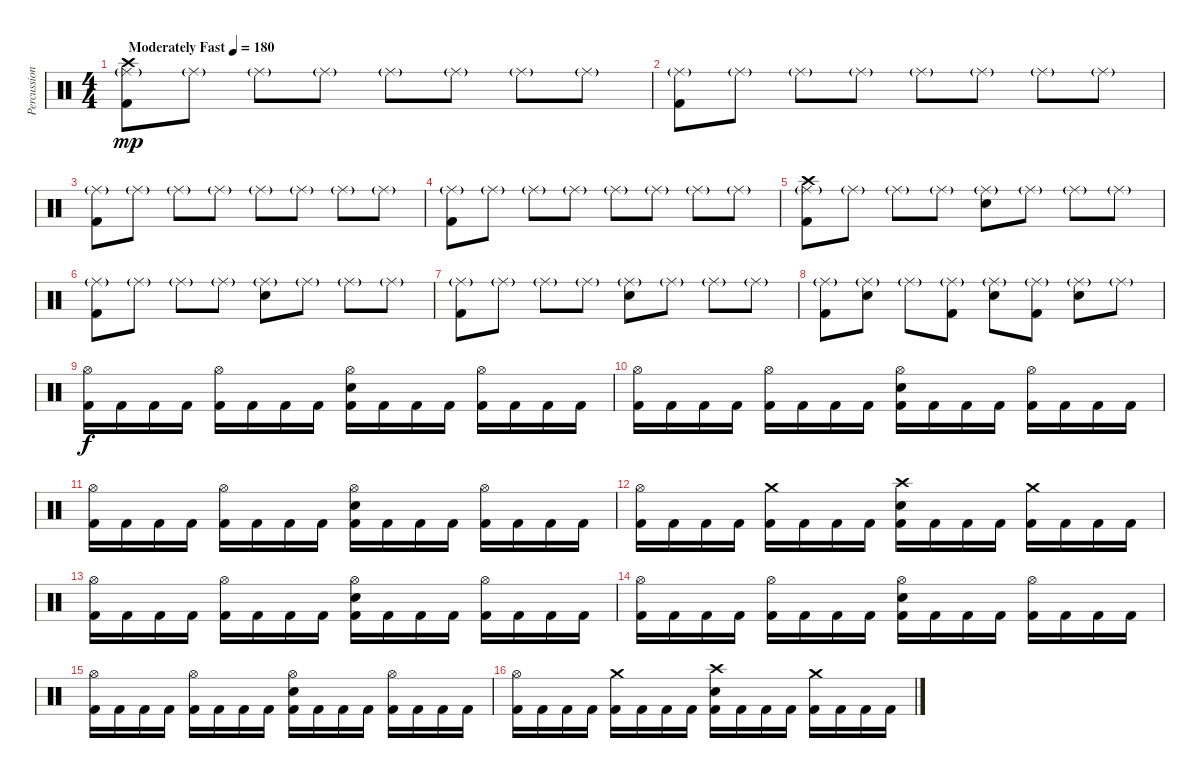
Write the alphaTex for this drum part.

\track ("Percussions" "Percussion") {instrument percussion}
\staff {score}
\articulation defaults
\ts (4 4)
\tempo (180 "Moderately Fast")
\clef neutral
\ks c
("Crash high (hit)" "Ride (middle)"{g} "Kick (hit) 2").8{dy mp} "Ride (middle)"{g}.8 "Ride (middle)"{g}.8 "Ride (middle)"{g}.8 "Ride (middle)"{g}.8 "Ride (middle)"{g}.8 "Ride (middle)"{g}.8 "Ride (middle)"{g}.8 |
("Ride (middle)"{g} "Kick (hit) 2").8 "Ride (middle)"{g}.8 "Ride (middle)"{g}.8 "Ride (middle)"{g}.8 "Ride (middle)"{g}.8 "Ride (middle)"{g}.8 "Ride (middle)"{g}.8 "Ride (middle)"{g}.8 |
("Ride (middle)"{g} "Kick (hit) 2").8 "Ride (middle)"{g}.8 "Ride (middle)"{g}.8 "Ride (middle)"{g}.8 "Ride (middle)"{g}.8 "Ride (middle)"{g}.8 "Ride (middle)"{g}.8 "Ride (middle)"{g}.8 |
("Ride (middle)"{g} "Kick (hit) 2").8 "Ride (middle)"{g}.8 "Ride (middle)"{g}.8 "Ride (middle)"{g}.8 "Ride (middle)"{g}.8 "Ride (middle)"{g}.8 "Ride (middle)"{g}.8 "Ride (middle)"{g}.8 |
("Crash high (hit)" "Ride (middle)"{g} "Kick (hit) 2").8 "Ride (middle)"{g}.8 "Ride (middle)"{g}.8 "Ride (middle)"{g}.8 ("Ride (middle)"{g} "Electric Snare (hit)").8 "Ride (middle)"{g}.8 "Ride (middle)"{g}.8 "Ride (middle)"{g}.8 |
("Ride (middle)"{g} "Kick (hit) 2").8 "Ride (middle)"{g}.8 "Ride (middle)"{g}.8 "Ride (middle)"{g}.8 ("Ride (middle)"{g} "Electric Snare (hit)").8 "Ride (middle)"{g}.8 "Ride (middle)"{g}.8 "Ride (middle)"{g}.8 |
("Ride (middle)"{g} "Kick (hit) 2").8 "Ride (middle)"{g}.8 "Ride (middle)"{g}.8 "Ride (middle)"{g}.8 ("Ride (middle)"{g} "Electric Snare (hit)").8 "Ride (middle)"{g}.8 "Ride (middle)"{g}.8 "Ride (middle)"{g}.8 |
("Ride (middle)"{g} "Kick (hit) 2").8 ("Ride (middle)"{g} "Electric Snare (hit)").8 "Ride (middle)"{g}.8 ("Ride (middle)"{g} "Kick (hit) 2").8 ("Ride (middle)"{g} "Electric Snare (hit)").8 ("Ride (middle)"{g} "Kick (hit) 2").8 ("Ride (middle)"{g} "Electric Snare (hit)").8 "Ride (middle)"{g}.8 |
("Hi-Hat (open)" "Kick (hit) 2").16{dy f} "Kick (hit) 2".16 "Kick (hit) 2".16 "Kick (hit) 2".16 ("Hi-Hat (open)" "Kick (hit) 2").16 "Kick (hit) 2".16 "Kick (hit) 2".16 "Kick (hit) 2".16 ("Hi-Hat (open)" "Electric Snare (hit)" "Kick (hit) 2").16 "Kick (hit) 2".16 "Kick (hit) 2".16 "Kick (hit) 2".16 ("Hi-Hat (open)" "Kick (hit) 2").16 "Kick (hit) 2".16 "Kick (hit) 2".16 "Kick (hit) 2".16 |
("Hi-Hat (open)" "Kick (hit) 2").16 "Kick (hit) 2".16 "Kick (hit) 2".16 "Kick (hit) 2".16 ("Hi-Hat (open)" "Kick (hit) 2").16 "Kick (hit) 2".16 "Kick (hit) 2".16 "Kick (hit) 2".16 ("Hi-Hat (open)" "Electric Snare (hit)" "Kick (hit) 2").16 "Kick (hit) 2".16 "Kick (hit) 2".16 "Kick (hit) 2".16 ("Hi-Hat (open)" "Kick (hit) 2").16 "Kick (hit) 2".16 "Kick (hit) 2".16 "Kick (hit) 2".16 |
("Hi-Hat (open)" "Kick (hit) 2").16 "Kick (hit) 2".16 "Kick (hit) 2".16 "Kick (hit) 2".16 ("Hi-Hat (open)" "Kick (hit) 2").16 "Kick (hit) 2".16 "Kick (hit) 2".16 "Kick (hit) 2".16 ("Hi-Hat (open)" "Electric Snare (hit)" "Kick (hit) 2").16 "Kick (hit) 2".16 "Kick (hit) 2".16 "Kick (hit) 2".16 ("Hi-Hat (open)" "Kick (hit) 2").16 "Kick (hit) 2".16 "Kick (hit) 2".16 "Kick (hit) 2".16 |
("Hi-Hat (open)" "Kick (hit) 2").16 "Kick (hit) 2".16 "Kick (hit) 2".16 "Kick (hit) 2".16 ("Crash medium (hit)" "Kick (hit) 2").16 "Kick (hit) 2".16 "Kick (hit) 2".16 "Kick (hit) 2".16 ("Crash high (hit)" "Electric Snare (hit)" "Kick (hit) 2").16 "Kick (hit) 2".16 "Kick (hit) 2".16 "Kick (hit) 2".16 ("Crash medium (hit)" "Kick (hit) 2").16 "Kick (hit) 2".16 "Kick (hit) 2".16 "Kick (hit) 2".16 |
("Hi-Hat (open)" "Kick (hit) 2").16 "Kick (hit) 2".16 "Kick (hit) 2".16 "Kick (hit) 2".16 ("Hi-Hat (open)" "Kick (hit) 2").16 "Kick (hit) 2".16 "Kick (hit) 2".16 "Kick (hit) 2".16 ("Hi-Hat (open)" "Electric Snare (hit)" "Kick (hit) 2").16 "Kick (hit) 2".16 "Kick (hit) 2".16 "Kick (hit) 2".16 ("Hi-Hat (open)" "Kick (hit) 2").16 "Kick (hit) 2".16 "Kick (hit) 2".16 "Kick (hit) 2".16 |
("Hi-Hat (open)" "Kick (hit) 2").16 "Kick (hit) 2".16 "Kick (hit) 2".16 "Kick (hit) 2".16 ("Hi-Hat (open)" "Kick (hit) 2").16 "Kick (hit) 2".16 "Kick (hit) 2".16 "Kick (hit) 2".16 ("Hi-Hat (open)" "Electric Snare (hit)" "Kick (hit) 2").16 "Kick (hit) 2".16 "Kick (hit) 2".16 "Kick (hit) 2".16 ("Hi-Hat (open)" "Kick (hit) 2").16 "Kick (hit) 2".16 "Kick (hit) 2".16 "Kick (hit) 2".16 |
("Hi-Hat (open)" "Kick (hit) 2").16 "Kick (hit) 2".16 "Kick (hit) 2".16 "Kick (hit) 2".16 ("Hi-Hat (open)" "Kick (hit) 2").16 "Kick (hit) 2".16 "Kick (hit) 2".16 "Kick (hit) 2".16 ("Hi-Hat (open)" "Electric Snare (hit)" "Kick (hit) 2").16 "Kick (hit) 2".16 "Kick (hit) 2".16 "Kick (hit) 2".16 ("Hi-Hat (open)" "Kick (hit) 2").16 "Kick (hit) 2".16 "Kick (hit) 2".16 "Kick (hit) 2".16 |
("Hi-Hat (open)" "Kick (hit) 2").16 "Kick (hit) 2".16 "Kick (hit) 2".16 "Kick (hit) 2".16 ("Crash medium (hit)" "Kick (hit) 2").16 "Kick (hit) 2".16 "Kick (hit) 2".16 "Kick (hit) 2".16 ("Crash high (hit)" "Electric Snare (hit)" "Kick (hit) 2").16 "Kick (hit) 2".16 "Kick (hit) 2".16 "Kick (hit) 2".16 ("Crash medium (hit)" "Kick (hit) 2").16 "Kick (hit) 2".16 "Kick (hit) 2".16 "Kick (hit) 2".16
